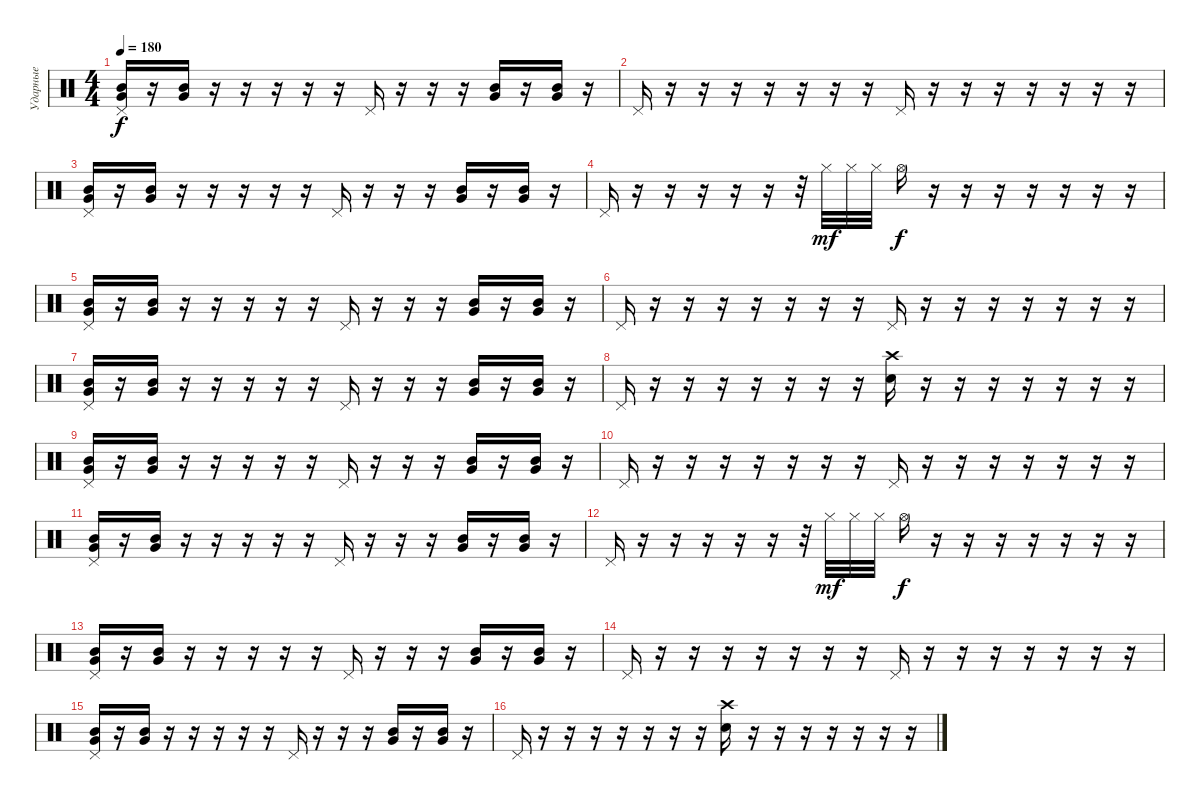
\track ("Ударные" "Ударные") {instrument percussion}
\staff {score}
\articulation defaults
\ts (4 4)
\tempo 180
\clef neutral
\ks c
("Pedal Hi-Hat (hit)" "Mid Tom (hit)" "Very Low Tom (hit)").16{dy f} r.16 ("Mid Tom (hit)" "Very Low Tom (hit)").16 r.16 r.16 r.16 r.16 r.16 "Pedal Hi-Hat (hit)".16 r.16 r.16 r.16 ("Very Low Tom (hit)" "Mid Tom (hit)").16 r.16 ("Mid Tom (hit)" "Very Low Tom (hit)").16 r.16 |
"Pedal Hi-Hat (hit)".16 r.16 r.16 r.16 r.16 r.16 r.16 r.16 "Pedal Hi-Hat (hit)".16 r.16 r.16 r.16 r.16 r.16 r.16 r.16 |
("Pedal Hi-Hat (hit)" "Mid Tom (hit)" "Very Low Tom (hit)").16 r.16 ("Mid Tom (hit)" "Very Low Tom (hit)").16 r.16 r.16 r.16 r.16 r.16 "Pedal Hi-Hat (hit)".16 r.16 r.16 r.16 ("Very Low Tom (hit)" "Mid Tom (hit)").16 r.16 ("Mid Tom (hit)" "Very Low Tom (hit)").16 r.16 |
"Pedal Hi-Hat (hit)".16 r.16 r.16 r.16 r.16 r.16 r.32 "Hi-Hat (closed)".32{dy mf} "Hi-Hat (closed)".32 "Hi-Hat (closed)".32 "Hi-Hat (open)".16{dy f} r.16 r.16 r.16 r.16 r.16 r.16 r.16 |
("Pedal Hi-Hat (hit)" "Mid Tom (hit)" "Very Low Tom (hit)").16 r.16 ("Mid Tom (hit)" "Very Low Tom (hit)").16 r.16 r.16 r.16 r.16 r.16 "Pedal Hi-Hat (hit)".16 r.16 r.16 r.16 ("Very Low Tom (hit)" "Mid Tom (hit)").16 r.16 ("Mid Tom (hit)" "Very Low Tom (hit)").16 r.16 |
"Pedal Hi-Hat (hit)".16 r.16 r.16 r.16 r.16 r.16 r.16 r.16 "Pedal Hi-Hat (hit)".16 r.16 r.16 r.16 r.16 r.16 r.16 r.16 |
("Pedal Hi-Hat (hit)" "Mid Tom (hit)" "Very Low Tom (hit)").16 r.16 ("Mid Tom (hit)" "Very Low Tom (hit)").16 r.16 r.16 r.16 r.16 r.16 "Pedal Hi-Hat (hit)".16 r.16 r.16 r.16 ("Very Low Tom (hit)" "Mid Tom (hit)").16 r.16 ("Mid Tom (hit)" "Very Low Tom (hit)").16 r.16 |
"Pedal Hi-Hat (hit)".16 r.16 r.16 r.16 r.16 r.16 r.16 r.16 ("Crash high (hit)" "Electric Snare (hit)").16 r.16 r.16 r.16 r.16 r.16 r.16 r.16 |
("Pedal Hi-Hat (hit)" "Mid Tom (hit)" "Very Low Tom (hit)").16 r.16 ("Mid Tom (hit)" "Very Low Tom (hit)").16 r.16 r.16 r.16 r.16 r.16 "Pedal Hi-Hat (hit)".16 r.16 r.16 r.16 ("Very Low Tom (hit)" "Mid Tom (hit)").16 r.16 ("Mid Tom (hit)" "Very Low Tom (hit)").16 r.16 |
"Pedal Hi-Hat (hit)".16 r.16 r.16 r.16 r.16 r.16 r.16 r.16 "Pedal Hi-Hat (hit)".16 r.16 r.16 r.16 r.16 r.16 r.16 r.16 |
("Pedal Hi-Hat (hit)" "Mid Tom (hit)" "Very Low Tom (hit)").16 r.16 ("Mid Tom (hit)" "Very Low Tom (hit)").16 r.16 r.16 r.16 r.16 r.16 "Pedal Hi-Hat (hit)".16 r.16 r.16 r.16 ("Very Low Tom (hit)" "Mid Tom (hit)").16 r.16 ("Mid Tom (hit)" "Very Low Tom (hit)").16 r.16 |
"Pedal Hi-Hat (hit)".16 r.16 r.16 r.16 r.16 r.16 r.32 "Hi-Hat (closed)".32{dy mf} "Hi-Hat (closed)".32 "Hi-Hat (closed)".32 "Hi-Hat (open)".16{dy f} r.16 r.16 r.16 r.16 r.16 r.16 r.16 |
("Pedal Hi-Hat (hit)" "Mid Tom (hit)" "Very Low Tom (hit)").16 r.16 ("Mid Tom (hit)" "Very Low Tom (hit)").16 r.16 r.16 r.16 r.16 r.16 "Pedal Hi-Hat (hit)".16 r.16 r.16 r.16 ("Very Low Tom (hit)" "Mid Tom (hit)").16 r.16 ("Mid Tom (hit)" "Very Low Tom (hit)").16 r.16 |
"Pedal Hi-Hat (hit)".16 r.16 r.16 r.16 r.16 r.16 r.16 r.16 "Pedal Hi-Hat (hit)".16 r.16 r.16 r.16 r.16 r.16 r.16 r.16 |
("Pedal Hi-Hat (hit)" "Mid Tom (hit)" "Very Low Tom (hit)").16 r.16 ("Mid Tom (hit)" "Very Low Tom (hit)").16 r.16 r.16 r.16 r.16 r.16 "Pedal Hi-Hat (hit)".16 r.16 r.16 r.16 ("Very Low Tom (hit)" "Mid Tom (hit)").16 r.16 ("Mid Tom (hit)" "Very Low Tom (hit)").16 r.16 |
"Pedal Hi-Hat (hit)".16 r.16 r.16 r.16 r.16 r.16 r.16 r.16 ("Crash high (hit)" "Electric Snare (hit)").16 r.16 r.16 r.16 r.16 r.16 r.16 r.16
